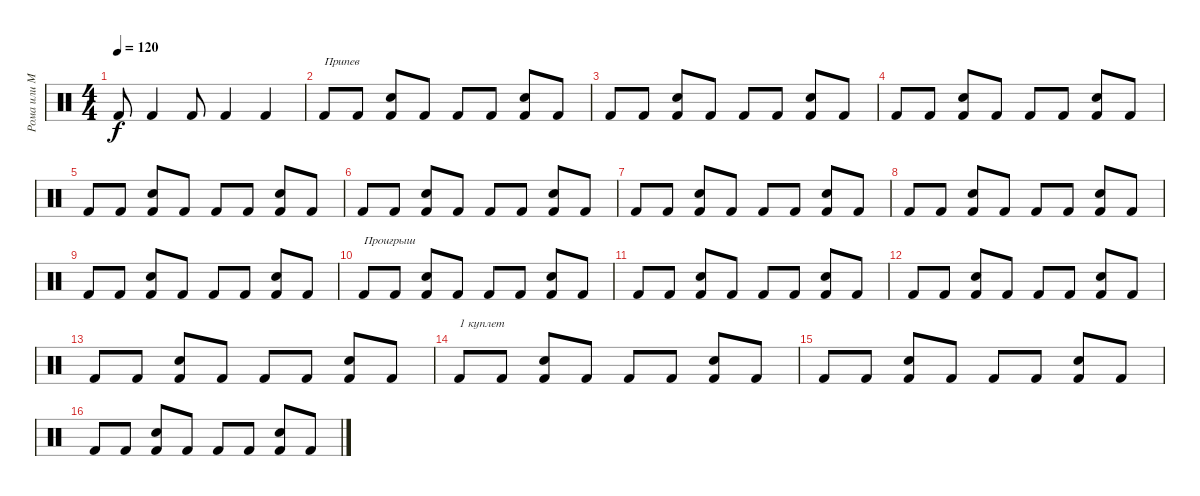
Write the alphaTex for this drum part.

\track ("Рома или Миша" "Рома или М") {instrument percussion}
\staff {score}
\articulation defaults
\ts (4 4)
\tempo 120
\clef neutral
\ks c "Kick (hit) 2".8{dy f} "Kick (hit) 2".4 "Kick (hit) 2".8 "Kick (hit) 2".4 "Kick (hit) 2".4
|
"Kick (hit) 2".8{txt "Припев"} "Kick (hit) 2".8 ("Snare (hit) 2" "Kick (hit) 2").8 "Kick (hit) 2".8 "Kick (hit) 2".8 "Kick (hit) 2".8 ("Snare (hit) 2" "Kick (hit) 2").8 "Kick (hit) 2".8 |
"Kick (hit) 2".8 "Kick (hit) 2".8 ("Snare (hit) 2" "Kick (hit) 2").8 "Kick (hit) 2".8 "Kick (hit) 2".8 "Kick (hit) 2".8 ("Snare (hit) 2" "Kick (hit) 2").8 "Kick (hit) 2".8 |
"Kick (hit) 2".8 "Kick (hit) 2".8 ("Snare (hit) 2" "Kick (hit) 2").8 "Kick (hit) 2".8 "Kick (hit) 2".8 "Kick (hit) 2".8 ("Snare (hit) 2" "Kick (hit) 2").8 "Kick (hit) 2".8 |
"Kick (hit) 2".8 "Kick (hit) 2".8 ("Snare (hit) 2" "Kick (hit) 2").8 "Kick (hit) 2".8 "Kick (hit) 2".8 "Kick (hit) 2".8 ("Snare (hit) 2" "Kick (hit) 2").8 "Kick (hit) 2".8 |
"Kick (hit) 2".8 "Kick (hit) 2".8 ("Snare (hit) 2" "Kick (hit) 2").8 "Kick (hit) 2".8 "Kick (hit) 2".8 "Kick (hit) 2".8 ("Snare (hit) 2" "Kick (hit) 2").8 "Kick (hit) 2".8 |
"Kick (hit) 2".8 "Kick (hit) 2".8 ("Snare (hit) 2" "Kick (hit) 2").8 "Kick (hit) 2".8 "Kick (hit) 2".8 "Kick (hit) 2".8 ("Snare (hit) 2" "Kick (hit) 2").8 "Kick (hit) 2".8 |
"Kick (hit) 2".8 "Kick (hit) 2".8 ("Snare (hit) 2" "Kick (hit) 2").8 "Kick (hit) 2".8 "Kick (hit) 2".8 "Kick (hit) 2".8 ("Snare (hit) 2" "Kick (hit) 2").8 "Kick (hit) 2".8 |
"Kick (hit) 2".8 "Kick (hit) 2".8 ("Snare (hit) 2" "Kick (hit) 2").8 "Kick (hit) 2".8 "Kick (hit) 2".8 "Kick (hit) 2".8 ("Snare (hit) 2" "Kick (hit) 2").8 "Kick (hit) 2".8 |
"Kick (hit) 2".8{txt "Проигрыш"} "Kick (hit) 2".8 ("Snare (hit) 2" "Kick (hit) 2").8 "Kick (hit) 2".8 "Kick (hit) 2".8 "Kick (hit) 2".8 ("Snare (hit) 2" "Kick (hit) 2").8 "Kick (hit) 2".8 |
"Kick (hit) 2".8 "Kick (hit) 2".8 ("Snare (hit) 2" "Kick (hit) 2").8 "Kick (hit) 2".8 "Kick (hit) 2".8 "Kick (hit) 2".8 ("Snare (hit) 2" "Kick (hit) 2").8 "Kick (hit) 2".8 |
"Kick (hit) 2".8 "Kick (hit) 2".8 ("Snare (hit) 2" "Kick (hit) 2").8 "Kick (hit) 2".8 "Kick (hit) 2".8 "Kick (hit) 2".8 ("Snare (hit) 2" "Kick (hit) 2").8 "Kick (hit) 2".8 |
"Kick (hit) 2".8 "Kick (hit) 2".8 ("Snare (hit) 2" "Kick (hit) 2").8 "Kick (hit) 2".8 "Kick (hit) 2".8 "Kick (hit) 2".8 ("Snare (hit) 2" "Kick (hit) 2").8 "Kick (hit) 2".8 |
"Kick (hit) 2".8{txt "1 куплет"} "Kick (hit) 2".8 ("Snare (hit) 2" "Kick (hit) 2").8 "Kick (hit) 2".8 "Kick (hit) 2".8 "Kick (hit) 2".8 ("Snare (hit) 2" "Kick (hit) 2").8 "Kick (hit) 2".8 |
"Kick (hit) 2".8 "Kick (hit) 2".8 ("Snare (hit) 2" "Kick (hit) 2").8 "Kick (hit) 2".8 "Kick (hit) 2".8 "Kick (hit) 2".8 ("Snare (hit) 2" "Kick (hit) 2").8 "Kick (hit) 2".8 |
"Kick (hit) 2".8 "Kick (hit) 2".8 ("Snare (hit) 2" "Kick (hit) 2").8 "Kick (hit) 2".8 "Kick (hit) 2".8 "Kick (hit) 2".8 ("Snare (hit) 2" "Kick (hit) 2").8 "Kick (hit) 2".8
